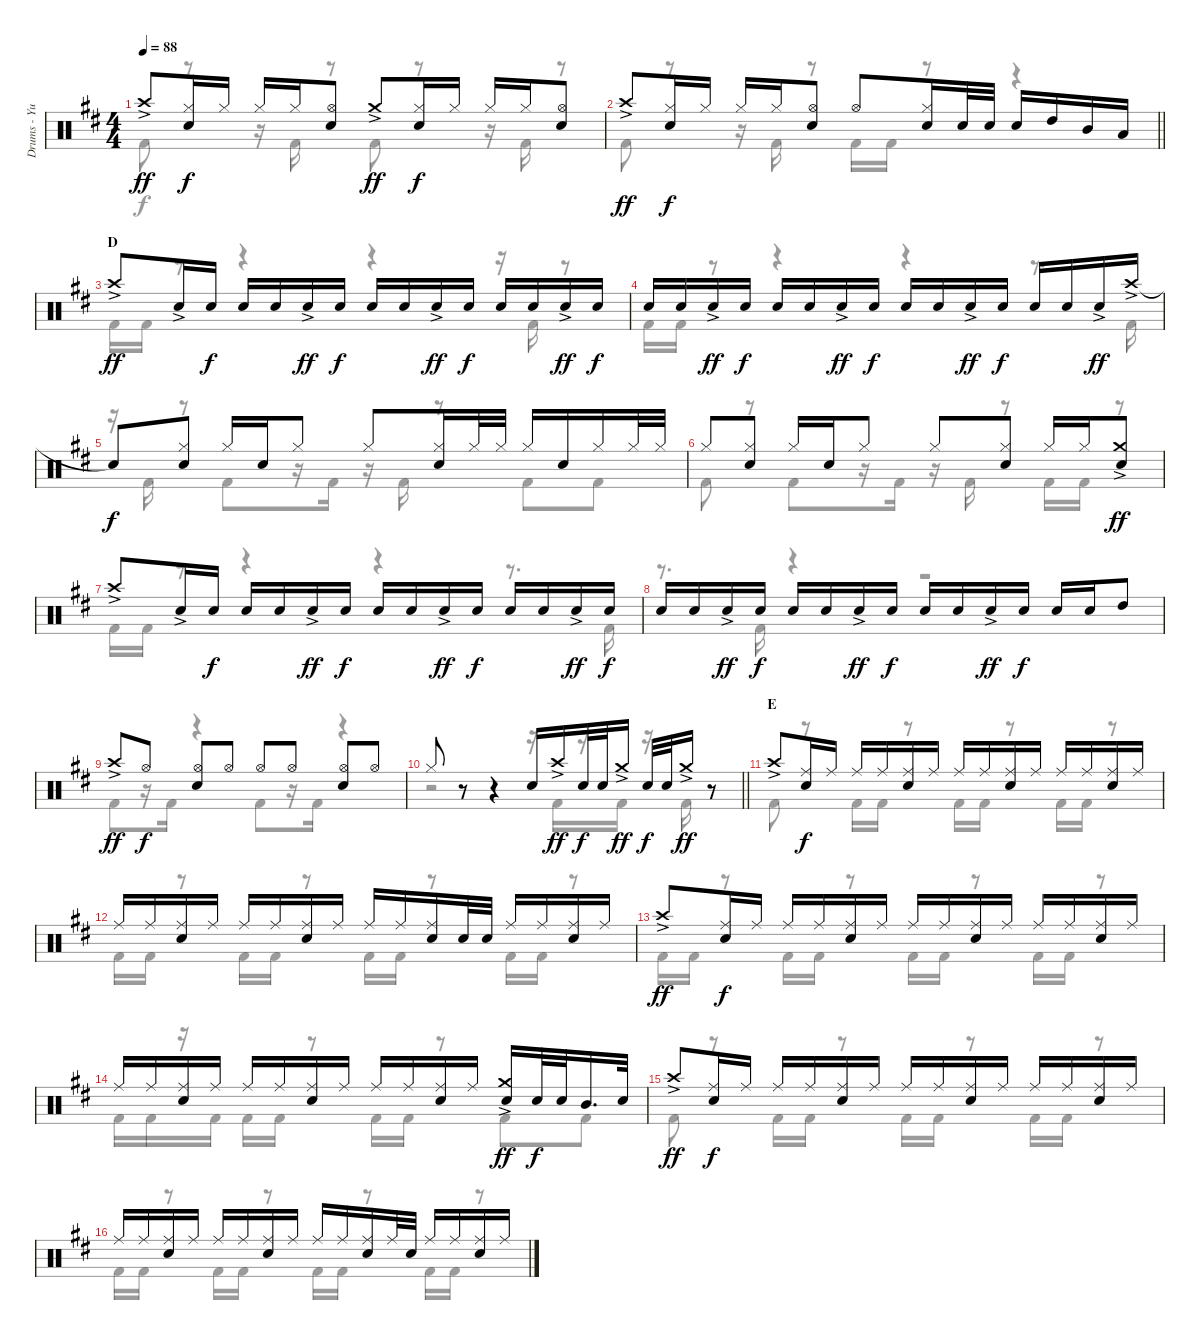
\track ("Drums - Yuuya" "Drums - Yu") {instrument percussion}
\staff {score}
\articulation defaults
\voice
\ts (4 4)
\tempo 88
\clef neutral
\ks d "Crash high (hit)"{ac}.8{dy ff}
("Hi-Hat (closed)" "Snare (hit) 2").16{dy f} "Hi-Hat (closed)".16 "Hi-Hat (closed)".16 "Hi-Hat (closed)".16 ("Hi-Hat (open)" "Snare (hit) 2").8 "Crash medium (hit)"{ac}.8{dy ff} ("Hi-Hat (closed)" "Snare (hit) 2").16{dy f} "Hi-Hat (closed)".16 "Hi-Hat (closed)".16 "Hi-Hat (closed)".16 ("Hi-Hat (open)" "Snare (hit) 2").8 |
\barLineRight lightlight "Crash high (hit)"{ac}.8{dy ff}
("Hi-Hat (closed)" "Snare (hit) 2").16{dy f} "Hi-Hat (closed)".16 "Hi-Hat (closed)".16 "Hi-Hat (closed)".16 ("Hi-Hat (open)" "Snare (hit) 2").8 "Hi-Hat (open)".8 ("Hi-Hat (closed)" "Snare (hit) 2").16 "Snare (hit) 2".32 "Snare (hit) 2".32 "Snare (hit) 2".16 "High Tom (hit)".16 "Mid Tom (hit)".16 "Low Tom (hit)".16 |
\section ("" "D")
"Crash high (hit)"{ac}.8{dy ff} "Snare (hit) 2"{ac}.16 "Snare (hit) 2".16{dy f} "Snare (hit) 2".16 "Snare (hit) 2".16 "Snare (hit) 2"{ac}.16{dy ff} "Snare (hit) 2".16{dy f} "Snare (hit) 2".16 "Snare (hit) 2".16 "Snare (hit) 2"{ac}.16{dy ff} "Snare (hit) 2".16{dy f} "Snare (hit) 2".16 "Snare (hit) 2".16 "Snare (hit) 2"{ac}.16{dy ff} "Snare (hit) 2".16{dy f} |
"Snare (hit) 2".16 "Snare (hit) 2".16 "Snare (hit) 2"{ac}.16{dy ff} "Snare (hit) 2".16{dy f} "Snare (hit) 2".16 "Snare (hit) 2".16 "Snare (hit) 2"{ac}.16{dy ff} "Snare (hit) 2".16{dy f} "Snare (hit) 2".16 "Snare (hit) 2".16 "Snare (hit) 2"{ac}.16{dy ff} "Snare (hit) 2".16{dy f} "Snare (hit) 2".16 "Snare (hit) 2".16 "Snare (hit) 2"{ac}.16{dy ff} "Crash high (hit)"{ac}.16 |
"Snare (hit)"{t}.8{dy f} ("Hi-Hat (closed)" "Snare (hit) 2").8 "Hi-Hat (closed)".16 "Snare (hit) 2".16 "Hi-Hat (closed)".8 "Hi-Hat (closed)".8 ("Hi-Hat (closed)" "Snare (hit) 2").16 "Hi-Hat (closed)".32 "Hi-Hat (closed)".32 "Hi-Hat (closed)".16 "Snare (hit) 2".16 "Hi-Hat (closed)".16 "Hi-Hat (closed)".32 "Hi-Hat (closed)".32 |
"Hi-Hat (closed)".8 ("Hi-Hat (closed)" "Snare (hit) 2").8 "Hi-Hat (closed)".16 "Snare (hit) 2".16 "Hi-Hat (closed)".8 "Hi-Hat (closed)".8 ("Hi-Hat (closed)" "Snare (hit) 2").8 "Hi-Hat (closed)".16 "Hi-Hat (closed)".16 ("Crash medium (hit)"{ac} "Snare (hit) 2").8{dy ff} |
"Crash high (hit)"{ac}.8 "Snare (hit) 2"{ac}.16 "Snare (hit) 2".16{dy f} "Snare (hit) 2".16 "Snare (hit) 2".16 "Snare (hit) 2"{ac}.16{dy ff} "Snare (hit) 2".16{dy f} "Snare (hit) 2".16 "Snare (hit) 2".16 "Snare (hit) 2"{ac}.16{dy ff} "Snare (hit) 2".16{dy f} "Snare (hit) 2".16 "Snare (hit) 2".16 "Snare (hit) 2"{ac}.16{dy ff} "Snare (hit) 2".16{dy f} |
"Snare (hit) 2".16 "Snare (hit) 2".16 "Snare (hit) 2"{ac}.16{dy ff} "Snare (hit) 2".16{dy f} "Snare (hit) 2".16 "Snare (hit) 2".16 "Snare (hit) 2"{ac}.16{dy ff} "Snare (hit) 2".16{dy f} "Snare (hit) 2".16 "Snare (hit) 2".16 "Snare (hit) 2"{ac}.16{dy ff} "Snare (hit) 2".16{dy f} "Snare (hit) 2".16 "Snare (hit) 2".16 "High Tom (hit)".8 |
"Crash high (hit)"{ac}.8{dy ff} "Hi-Hat (open)".8{dy f} ("Hi-Hat (open)" "Snare (hit) 2").8 "Hi-Hat (open)".8 "Hi-Hat (open)".8 "Hi-Hat (open)".8 ("Hi-Hat (open)" "Snare (hit) 2").8 "Hi-Hat (open)".8 |
\barLineRight lightlight "Hi-Hat (closed)".8
r.8 r.4 "Snare (hit) 2".16 "Crash high (hit)"{ac}.16{dy ff} "Snare (hit) 2".32{dy f} "Snare (hit) 2".32 "Crash medium (hit)"{ac}.16{dy ff} "Snare (hit) 2".32{dy f} "Snare (hit) 2".32 "Crash medium (hit)"{ac}.16{dy ff} r.8 |
\section ("" "E")
"Crash high (hit)"{ac}.8 ("Ride (middle)" "Snare (hit) 2").16{dy f} "Ride (middle)".16 "Ride (middle)".16 "Ride (middle)".16 ("Ride (middle)" "Snare (hit) 2").16 "Ride (middle)".16 "Ride (middle)".16 "Ride (middle)".16 ("Ride (middle)" "Snare (hit) 2").16 "Ride (middle)".16 "Ride (middle)".16 "Ride (middle)".16 ("Ride (middle)" "Snare (hit) 2").16 "Ride (middle)".16 |
"Ride (middle)".16 "Ride (middle)".16 ("Ride (middle)" "Snare (hit) 2").16 "Ride (middle)".16 "Ride (middle)".16 "Ride (middle)".16 ("Ride (middle)" "Snare (hit) 2").16 "Ride (middle)".16 "Ride (middle)".16 "Ride (middle)".16 ("Ride (middle)" "Snare (hit) 2").16 "Snare (hit) 2".32 "Snare (hit) 2".32 "Ride (middle)".16 "Ride (middle)".16 ("Ride (middle)" "Snare (hit) 2").16 "Ride (middle)".16 |
"Crash high (hit)"{ac}.8{dy ff} ("Ride (middle)" "Snare (hit) 2").16{dy f} "Ride (middle)".16 "Ride (middle)".16 "Ride (middle)".16 ("Ride (middle)" "Snare (hit) 2").16 "Ride (middle)".16 "Ride (middle)".16 "Ride (middle)".16 ("Ride (middle)" "Snare (hit) 2").16 "Ride (middle)".16 "Ride (middle)".16 "Ride (middle)".16 ("Ride (middle)" "Snare (hit) 2").16 "Ride (middle)".16 |
"Ride (middle)".16 "Ride (middle)".16 ("Ride (middle)" "Snare (hit) 2").16 "Ride (middle)".16 "Ride (middle)".16 "Ride (middle)".16 ("Ride (middle)" "Snare (hit) 2").16 "Ride (middle)".16 "Ride (middle)".16 "Ride (middle)".16 ("Ride (middle)" "Snare (hit) 2").16 "Ride (middle)".16 ("Crash medium (hit)"{ac} "Snare (hit) 2").16{dy ff} "Snare (hit) 2".32{dy f} "Snare (hit) 2".32 "Mid Tom (hit)".16{d} "Snare (hit) 2".32 |
"Crash high (hit)"{ac}.8{dy ff} ("Ride (middle)" "Snare (hit) 2").16{dy f} "Ride (middle)".16 "Ride (middle)".16 "Ride (middle)".16 ("Ride (middle)" "Snare (hit) 2").16 "Ride (middle)".16 "Ride (middle)".16 "Ride (middle)".16 ("Ride (middle)" "Snare (hit) 2").16 "Ride (middle)".16 "Ride (middle)".16 "Ride (middle)".16 ("Ride (middle)" "Snare (hit) 2").16 "Ride (middle)".16 |
"Ride (middle)".16 "Ride (middle)".16 ("Ride (middle)" "Snare (hit) 2").16 "Ride (middle)".16 "Ride (middle)".16 "Ride (middle)".16 ("Ride (middle)" "Snare (hit) 2").16 "Ride (middle)".16 "Ride (middle)".16 "Ride (middle)".16 ("Ride (middle)" "Snare (hit) 2").16 "Ride (middle)".32 "Snare (hit) 2".32 "Ride (middle)".16 "Ride (middle)".16 ("Ride (middle)" "Snare (hit) 2").16 "Ride (middle)".16
\voice
\clef neutral
\ottava regular
\simile none
\ks d "Kick (hit) 2".8{dy f}
r.8 r.16 "Kick (hit) 2".16 r.8 "Kick (hit) 2".8 r.8 r.16 "Kick (hit) 2".16 r.8 |
\barLineRight lightlight "Kick (hit) 2".8
r.8 r.16 "Kick (hit) 2".16 r.8 "Kick (hit) 2".16 "Kick (hit) 2".16 r.8 r.4 |
"Kick (hit) 2".16 "Kick (hit) 2".16 r.8 r.4 r.4 r.16 "Kick (hit) 2".16 r.8 |
"Kick (hit) 2".16 "Kick (hit) 2".16 r.8 r.4 r.4 r.8{d} "Kick (hit) 2".16 |
r.16 "Kick (hit) 2".16 r.8 "Kick (hit) 2".8 r.16 "Kick (hit) 2".16 r.16 "Kick (hit) 2".16 r.8 "Kick (hit) 2".8 "Kick (hit) 2".8 |
"Kick (hit) 2".8 r.8 "Kick (hit) 2".8 r.16 "Kick (hit) 2".16 r.16 "Kick (hit) 2".16 r.8 "Kick (hit) 2".16 "Kick (hit) 2".16 r.8 |
"Kick (hit) 2".16 "Kick (hit) 2".16 r.8 r.4 r.4 r.8{d} "Kick (hit) 2".16 |
r.8{d} "Kick (hit) 2".16 r.4 r.2 |
"Kick (hit) 2".8 r.16 "Kick (hit) 2".16 r.4 "Kick (hit) 2".8 r.16 "Kick (hit) 2".16 r.4 |
\barLineRight lightlight
r.2 r.16 "Kick (hit) 2".16 r.16 "Kick (hit) 2".16 r.16 "Kick (hit) 2".16 r.8 |
"Kick (hit) 2".8 r.8 "Kick (hit) 2".16 "Kick (hit) 2".16 r.8 "Kick (hit) 2".16 "Kick (hit) 2".16 r.8 "Kick (hit) 2".16 "Kick (hit) 2".16 r.8 |
"Kick (hit) 2".16 "Kick (hit) 2".16 r.8 "Kick (hit) 2".16 "Kick (hit) 2".16 r.8 "Kick (hit) 2".16 "Kick (hit) 2".16 r.8 "Kick (hit) 2".16 "Kick (hit) 2".16 r.8 |
"Kick (hit) 2".16 "Kick (hit) 2".16 r.8 "Kick (hit) 2".16 "Kick (hit) 2".16 r.8 "Kick (hit) 2".16 "Kick (hit) 2".16 r.8 "Kick (hit) 2".16 "Kick (hit) 2".16 r.8 |
"Kick (hit) 2".16 "Kick (hit) 2".16 r.16 "Kick (hit) 2".16 "Kick (hit) 2".16 "Kick (hit) 2".16 r.8 "Kick (hit) 2".16 "Kick (hit) 2".16 r.8 "Kick (hit) 2".8 "Kick (hit) 2".8 |
"Kick (hit) 2".8 r.8 "Kick (hit) 2".16 "Kick (hit) 2".16 r.8 "Kick (hit) 2".16 "Kick (hit) 2".16 r.8 "Kick (hit) 2".16 "Kick (hit) 2".16 r.8 |
"Kick (hit) 2".16 "Kick (hit) 2".16 r.8 "Kick (hit) 2".16 "Kick (hit) 2".16 r.8 "Kick (hit) 2".16 "Kick (hit) 2".16 r.8 "Kick (hit) 2".16 "Kick (hit) 2".16 r.8
